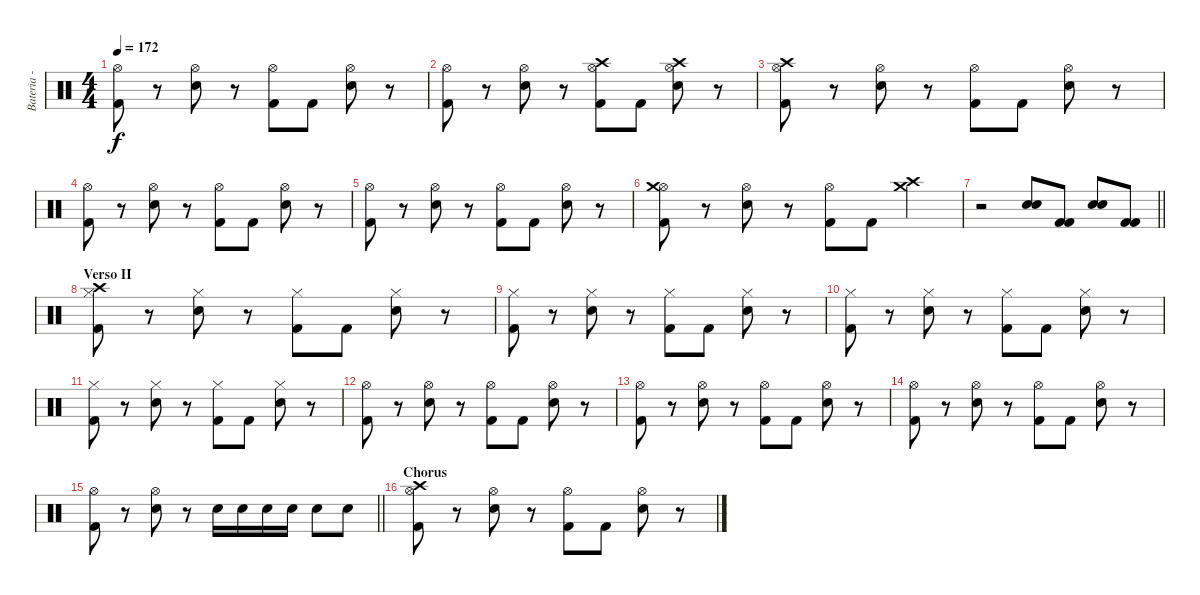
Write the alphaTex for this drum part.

\track ("Bateria - Larzon" "Bateria - ") {instrument percussion}
\staff {score}
\articulation defaults
\ts (4 4)
\tempo 172
\clef neutral
\ks c
("Kick (hit) 2" "Hi-Hat (open)").8{dy f} r.8 ("Snare (hit) 2" "Hi-Hat (open)").8 r.8 ("Kick (hit) 2" "Hi-Hat (open)").8 "Kick (hit) 2".8 ("Snare (hit) 2" "Hi-Hat (open)").8 r.8 |
("Kick (hit) 2" "Hi-Hat (open)").8 r.8 ("Snare (hit) 2" "Hi-Hat (open)").8 r.8 ("Kick (hit) 2" "Hi-Hat (open)" "Crash high (hit)").8 "Kick (hit) 2".8 ("Snare (hit) 2" "Hi-Hat (open)" "Crash high (hit)").8 r.8 |
("Kick (hit) 2" "Hi-Hat (open)" "Crash high (hit)").8 r.8 ("Snare (hit) 2" "Hi-Hat (open)").8 r.8 ("Kick (hit) 2" "Hi-Hat (open)").8 "Kick (hit) 2".8 ("Snare (hit) 2" "Hi-Hat (open)").8 r.8 |
("Kick (hit) 2" "Hi-Hat (open)").8 r.8 ("Snare (hit) 2" "Hi-Hat (open)").8 r.8 ("Kick (hit) 2" "Hi-Hat (open)").8 "Kick (hit) 2".8 ("Snare (hit) 2" "Hi-Hat (open)").8 r.8 |
("Kick (hit) 2" "Hi-Hat (open)").8 r.8 ("Snare (hit) 2" "Hi-Hat (open)").8 r.8 ("Kick (hit) 2" "Hi-Hat (open)").8 "Kick (hit) 2".8 ("Snare (hit) 2" "Hi-Hat (open)").8 r.8 |
("Kick (hit) 2" "Hi-Hat (open)" "Crash medium (hit)").8 r.8 ("Snare (hit) 2" "Hi-Hat (open)").8 r.8 ("Kick (hit) 2" "Hi-Hat (open)").8 "Kick (hit) 2".8 ("Crash high (hit)" "Crash medium (hit)").4 |
\barLineRight lightlight
r.2 ("Snare (hit) 2" "Snare (hit) 2").8 ("Kick (hit) 2" "Kick (hit) 2").8 ("Snare (hit) 2" "Snare (hit) 2").8 ("Kick (hit) 2" "Kick (hit) 2").8 |
\section ("" "Verso II")
("Kick (hit) 2" "Hi-Hat (closed)" "Crash high (hit)").8 r.8 ("Snare (hit) 2" "Hi-Hat (closed)").8 r.8 ("Kick (hit) 2" "Hi-Hat (closed)").8 "Kick (hit) 2".8 ("Snare (hit) 2" "Hi-Hat (closed)").8 r.8 |
("Kick (hit) 2" "Hi-Hat (closed)").8 r.8 ("Snare (hit) 2" "Hi-Hat (closed)").8 r.8 ("Kick (hit) 2" "Hi-Hat (closed)").8 "Kick (hit) 2".8 ("Snare (hit) 2" "Hi-Hat (closed)").8 r.8 |
("Kick (hit) 2" "Hi-Hat (closed)").8 r.8 ("Snare (hit) 2" "Hi-Hat (closed)").8 r.8 ("Kick (hit) 2" "Hi-Hat (closed)").8 "Kick (hit) 2".8 ("Snare (hit) 2" "Hi-Hat (closed)").8 r.8 |
("Kick (hit) 2" "Hi-Hat (closed)").8 r.8 ("Snare (hit) 2" "Hi-Hat (closed)").8 r.8 ("Kick (hit) 2" "Hi-Hat (closed)").8 "Kick (hit) 2".8 ("Snare (hit) 2" "Hi-Hat (closed)").8 r.8 |
("Kick (hit) 2" "Hi-Hat (open)").8 r.8 ("Snare (hit) 2" "Hi-Hat (open)").8 r.8 ("Kick (hit) 2" "Hi-Hat (open)").8 "Kick (hit) 2".8 ("Snare (hit) 2" "Hi-Hat (open)").8 r.8 |
("Kick (hit) 2" "Hi-Hat (open)").8 r.8 ("Snare (hit) 2" "Hi-Hat (open)").8 r.8 ("Kick (hit) 2" "Hi-Hat (open)").8 "Kick (hit) 2".8 ("Snare (hit) 2" "Hi-Hat (open)").8 r.8 |
("Kick (hit) 2" "Hi-Hat (open)").8 r.8 ("Snare (hit) 2" "Hi-Hat (open)").8 r.8 ("Kick (hit) 2" "Hi-Hat (open)").8 "Kick (hit) 2".8 ("Snare (hit) 2" "Hi-Hat (open)").8 r.8 |
\barLineRight lightlight
("Kick (hit) 2" "Hi-Hat (open)").8 r.8 ("Snare (hit) 2" "Hi-Hat (open)").8 r.8 "Snare (hit) 2".16 "Snare (hit) 2".16 "Snare (hit) 2".16 "Snare (hit) 2".16 "Snare (hit) 2".8 "Snare (hit) 2".8 |
\section ("" "Chorus")
("Kick (hit) 2" "Hi-Hat (open)" "Crash high (hit)").8 r.8 ("Snare (hit) 2" "Hi-Hat (open)").8 r.8 ("Kick (hit) 2" "Hi-Hat (open)").8 "Kick (hit) 2".8 ("Snare (hit) 2" "Hi-Hat (open)").8 r.8
